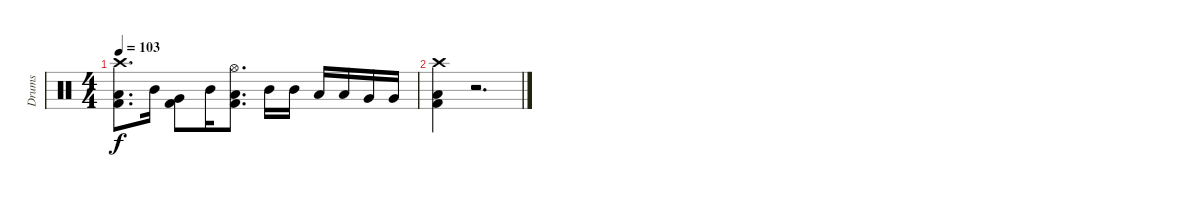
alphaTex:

\track ("Drums" "Drums") {instrument percussion}
\staff {score}
\articulation defaults
\ts (4 4)
\tempo 103
\clef neutral
\ks c
("Crash high (hit)" "Low Floor Tom (hit)" "Kick (hit) 2").8{d dy f} "Mid Tom (hit)".16 ("Very Low Tom (hit)" "Kick (hit) 2").8 "Mid Tom (hit)".16 ("Hi-Hat (open)" "Low Floor Tom (hit)" "Kick (hit) 2").8{d} "Mid Tom (hit)".16 "Mid Tom (hit)".16 "Low Tom (hit)".16 "Low Tom (hit)".16 "Very Low Tom (hit)".16 "Very Low Tom (hit)".16 |
("Crash high (hit)" "Low Floor Tom (hit)" "Kick (hit) 2").4 r.2{d}
